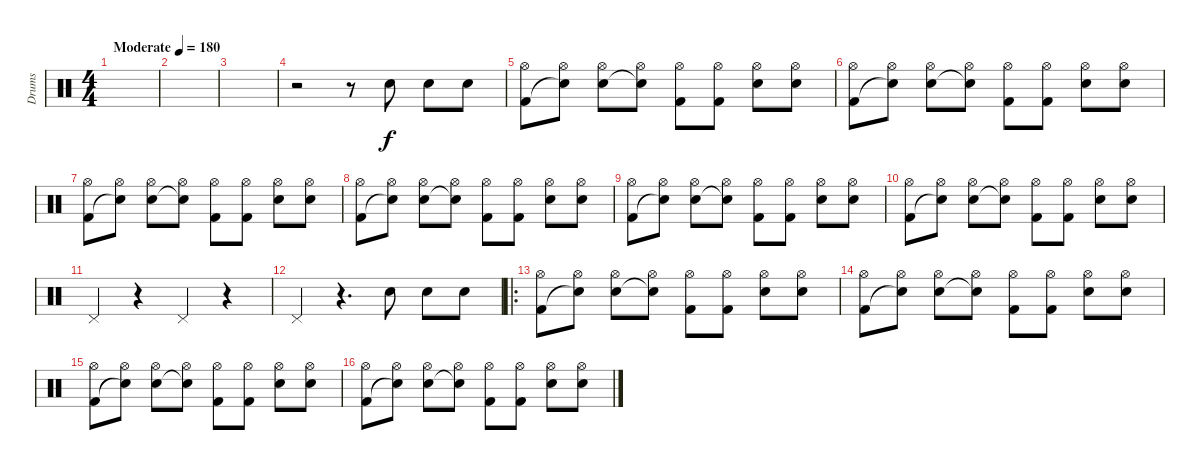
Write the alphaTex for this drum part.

\track ("Drums" "Drums") {instrument percussion}
\staff {score}
\articulation defaults
\ts (4 4)
\tempo (180 "Moderate")
\clef neutral
\ks c
|
|
|
r.2 r.8 "Electric Snare (hit)".8 "Electric Snare (hit)".8 "Electric Snare (hit)".8 |
("Hi-Hat (open)" "Kick (hit) 2").8 ("Hi-Hat (open)" "Snare (hit)"{t}).8 ("Hi-Hat (open)" "Electric Snare (hit)").8 ("Hi-Hat (open)" "Snare (hit)"{t}).8 ("Hi-Hat (open)" "Kick (hit) 2").8 ("Hi-Hat (open)" "Kick (hit) 2").8 ("Hi-Hat (open)" "Electric Snare (hit)").8 ("Hi-Hat (open)" "Electric Snare (hit)").8 |
("Hi-Hat (open)" "Kick (hit) 2").8 ("Hi-Hat (open)" "Snare (hit)"{t}).8 ("Hi-Hat (open)" "Electric Snare (hit)").8 ("Hi-Hat (open)" "Snare (hit)"{t}).8 ("Hi-Hat (open)" "Kick (hit) 2").8 ("Hi-Hat (open)" "Kick (hit) 2").8 ("Hi-Hat (open)" "Electric Snare (hit)").8 ("Hi-Hat (open)" "Electric Snare (hit)").8 |
("Hi-Hat (open)" "Kick (hit) 2").8 ("Hi-Hat (open)" "Snare (hit)"{t}).8 ("Hi-Hat (open)" "Electric Snare (hit)").8 ("Hi-Hat (open)" "Snare (hit)"{t}).8 ("Hi-Hat (open)" "Kick (hit) 2").8 ("Hi-Hat (open)" "Kick (hit) 2").8 ("Hi-Hat (open)" "Electric Snare (hit)").8 ("Hi-Hat (open)" "Electric Snare (hit)").8 |
("Hi-Hat (open)" "Kick (hit) 2").8 ("Hi-Hat (open)" "Snare (hit)"{t}).8 ("Hi-Hat (open)" "Electric Snare (hit)").8 ("Hi-Hat (open)" "Snare (hit)"{t}).8 ("Hi-Hat (open)" "Kick (hit) 2").8 ("Hi-Hat (open)" "Kick (hit) 2").8 ("Hi-Hat (open)" "Electric Snare (hit)").8 ("Hi-Hat (open)" "Electric Snare (hit)").8 |
("Hi-Hat (open)" "Kick (hit) 2").8 ("Hi-Hat (open)" "Snare (hit)"{t}).8 ("Hi-Hat (open)" "Electric Snare (hit)").8 ("Hi-Hat (open)" "Snare (hit)"{t}).8 ("Hi-Hat (open)" "Kick (hit) 2").8 ("Hi-Hat (open)" "Kick (hit) 2").8 ("Hi-Hat (open)" "Electric Snare (hit)").8 ("Hi-Hat (open)" "Electric Snare (hit)").8 |
("Hi-Hat (open)" "Kick (hit) 2").8 ("Hi-Hat (open)" "Snare (hit)"{t}).8 ("Hi-Hat (open)" "Electric Snare (hit)").8 ("Hi-Hat (open)" "Snare (hit)"{t}).8 ("Hi-Hat (open)" "Kick (hit) 2").8 ("Hi-Hat (open)" "Kick (hit) 2").8 ("Hi-Hat (open)" "Electric Snare (hit)").8 ("Hi-Hat (open)" "Electric Snare (hit)").8 |
"Pedal Hi-Hat (hit)".4 r.4 "Pedal Hi-Hat (hit)".4 r.4 |
"Pedal Hi-Hat (hit)".4 r.4{d} "Electric Snare (hit)".8 "Electric Snare (hit)".8 "Electric Snare (hit)".8 |
\ro
("Hi-Hat (open)" "Kick (hit) 2").8 ("Hi-Hat (open)" "Snare (hit)"{t}).8 ("Hi-Hat (open)" "Electric Snare (hit)").8 ("Hi-Hat (open)" "Snare (hit)"{t}).8 ("Hi-Hat (open)" "Kick (hit) 2").8 ("Hi-Hat (open)" "Kick (hit) 2").8 ("Hi-Hat (open)" "Electric Snare (hit)").8 ("Hi-Hat (open)" "Electric Snare (hit)").8 |
("Hi-Hat (open)" "Kick (hit) 2").8 ("Hi-Hat (open)" "Snare (hit)"{t}).8 ("Hi-Hat (open)" "Electric Snare (hit)").8 ("Hi-Hat (open)" "Snare (hit)"{t}).8 ("Hi-Hat (open)" "Kick (hit) 2").8 ("Hi-Hat (open)" "Kick (hit) 2").8 ("Hi-Hat (open)" "Electric Snare (hit)").8 ("Hi-Hat (open)" "Electric Snare (hit)").8 |
("Hi-Hat (open)" "Kick (hit) 2").8 ("Hi-Hat (open)" "Snare (hit)"{t}).8 ("Hi-Hat (open)" "Electric Snare (hit)").8 ("Hi-Hat (open)" "Snare (hit)"{t}).8 ("Hi-Hat (open)" "Kick (hit) 2").8 ("Hi-Hat (open)" "Kick (hit) 2").8 ("Hi-Hat (open)" "Electric Snare (hit)").8 ("Hi-Hat (open)" "Electric Snare (hit)").8 |
("Hi-Hat (open)" "Kick (hit) 2").8 ("Hi-Hat (open)" "Snare (hit)"{t}).8 ("Hi-Hat (open)" "Electric Snare (hit)").8 ("Hi-Hat (open)" "Snare (hit)"{t}).8 ("Hi-Hat (open)" "Kick (hit) 2").8 ("Hi-Hat (open)" "Kick (hit) 2").8 ("Hi-Hat (open)" "Electric Snare (hit)").8 ("Hi-Hat (open)" "Electric Snare (hit)").8
